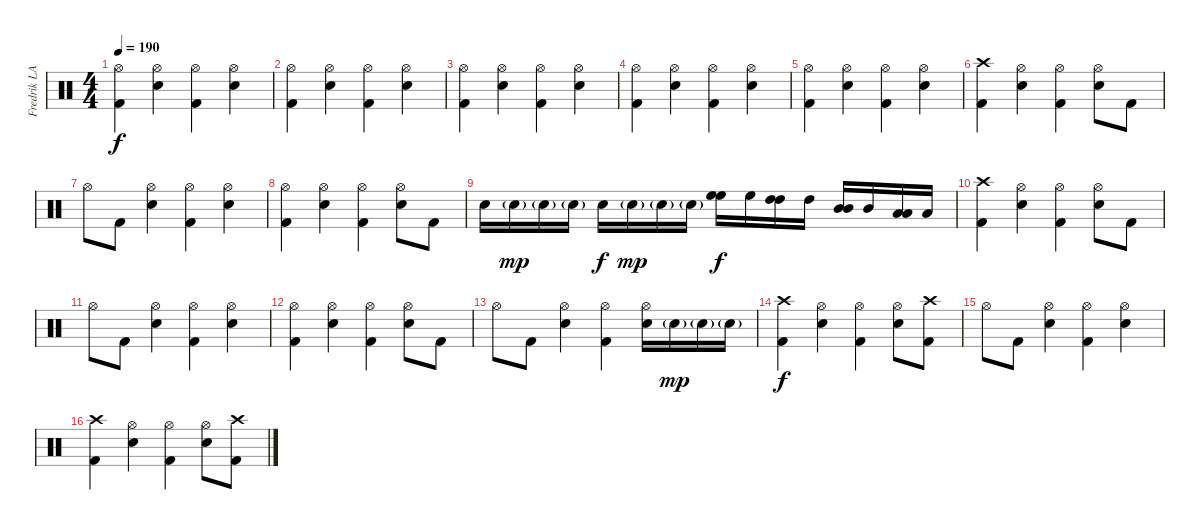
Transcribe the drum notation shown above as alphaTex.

\track ("Fredrik LARZON" "Fredrik LA") {instrument percussion}
\staff {score}
\articulation defaults
\ts (4 4)
\tempo 190
\clef neutral
\ks c
("Hi-Hat (open)" "Kick (hit) 2").4{dy f} ("Hi-Hat (open)" "Electric Snare (hit)").4 ("Hi-Hat (open)" "Kick (hit) 2").4 ("Hi-Hat (open)" "Electric Snare (hit)").4 |
("Hi-Hat (open)" "Kick (hit) 2").4 ("Hi-Hat (open)" "Electric Snare (hit)").4 ("Hi-Hat (open)" "Kick (hit) 2").4 ("Hi-Hat (open)" "Electric Snare (hit)").4 |
("Hi-Hat (open)" "Kick (hit) 2").4 ("Hi-Hat (open)" "Electric Snare (hit)").4 ("Hi-Hat (open)" "Kick (hit) 2").4 ("Hi-Hat (open)" "Electric Snare (hit)").4 |
("Hi-Hat (open)" "Kick (hit) 2").4 ("Hi-Hat (open)" "Electric Snare (hit)").4 ("Hi-Hat (open)" "Kick (hit) 2").4 ("Hi-Hat (open)" "Electric Snare (hit)").4 |
("Hi-Hat (open)" "Kick (hit) 2").4 ("Hi-Hat (open)" "Electric Snare (hit)").4 ("Hi-Hat (open)" "Kick (hit) 2").4 ("Hi-Hat (open)" "Electric Snare (hit)").4 |
("Crash high (hit)" "Kick (hit) 2").4 ("Hi-Hat (open)" "Electric Snare (hit)").4 ("Hi-Hat (open)" "Kick (hit) 2").4 ("Hi-Hat (open)" "Electric Snare (hit)").8 "Kick (hit) 2".8 |
"Hi-Hat (open)".8 "Kick (hit) 2".8 ("Hi-Hat (open)" "Electric Snare (hit)").4 ("Hi-Hat (open)" "Kick (hit) 2").4 ("Hi-Hat (open)" "Electric Snare (hit)").4 |
("Hi-Hat (open)" "Kick (hit) 2").4 ("Hi-Hat (open)" "Electric Snare (hit)").4 ("Hi-Hat (open)" "Kick (hit) 2").4 ("Hi-Hat (open)" "Electric Snare (hit)").8 "Kick (hit) 2".8 |
"Electric Snare (hit)".16 "Electric Snare (hit)"{g}.16{dy mp} "Electric Snare (hit)"{g}.16 "Electric Snare (hit)"{g}.16 "Electric Snare (hit)".16{dy f} "Electric Snare (hit)"{g}.16{dy mp} "Electric Snare (hit)"{g}.16 "Electric Snare (hit)"{g}.16 ("High Floor Tom (hit)" "High Floor Tom (hit)").16{dy f} "High Floor Tom (hit)".16 ("High Tom (hit)" "High Tom (hit)").16 "High Tom (hit)".16 ("Mid Tom (hit)" "Mid Tom (hit)").16 "Mid Tom (hit)".16 ("Low Tom (hit)" "Low Tom (hit)").16 "Low Tom (hit)".16 |
("Crash high (hit)" "Kick (hit) 2").4 ("Hi-Hat (open)" "Electric Snare (hit)").4 ("Hi-Hat (open)" "Kick (hit) 2").4 ("Hi-Hat (open)" "Electric Snare (hit)").8 "Kick (hit) 2".8 |
"Hi-Hat (open)".8 "Kick (hit) 2".8 ("Hi-Hat (open)" "Electric Snare (hit)").4 ("Hi-Hat (open)" "Kick (hit) 2").4 ("Hi-Hat (open)" "Electric Snare (hit)").4 |
("Hi-Hat (open)" "Kick (hit) 2").4 ("Hi-Hat (open)" "Electric Snare (hit)").4 ("Hi-Hat (open)" "Kick (hit) 2").4 ("Hi-Hat (open)" "Electric Snare (hit)").8 "Kick (hit) 2".8 |
"Hi-Hat (open)".8 "Kick (hit) 2".8 ("Hi-Hat (open)" "Electric Snare (hit)").4 ("Hi-Hat (open)" "Kick (hit) 2").4 ("Hi-Hat (open)" "Electric Snare (hit)").16 "Electric Snare (hit)"{g}.16{dy mp} "Electric Snare (hit)"{g}.16 "Electric Snare (hit)"{g}.16 |
("Crash high (hit)" "Kick (hit) 2").4{dy f} ("Hi-Hat (open)" "Electric Snare (hit)").4 ("Hi-Hat (open)" "Kick (hit) 2").4 ("Hi-Hat (open)" "Electric Snare (hit)").8 ("Crash high (hit)" "Kick (hit) 2").8 |
"Hi-Hat (open)".8 "Kick (hit) 2".8 ("Hi-Hat (open)" "Electric Snare (hit)").4 ("Hi-Hat (open)" "Kick (hit) 2").4 ("Hi-Hat (open)" "Electric Snare (hit)").4 |
("Crash high (hit)" "Kick (hit) 2").4 ("Hi-Hat (open)" "Electric Snare (hit)").4 ("Hi-Hat (open)" "Kick (hit) 2").4 ("Hi-Hat (open)" "Electric Snare (hit)").8 ("Crash high (hit)" "Kick (hit) 2").8
